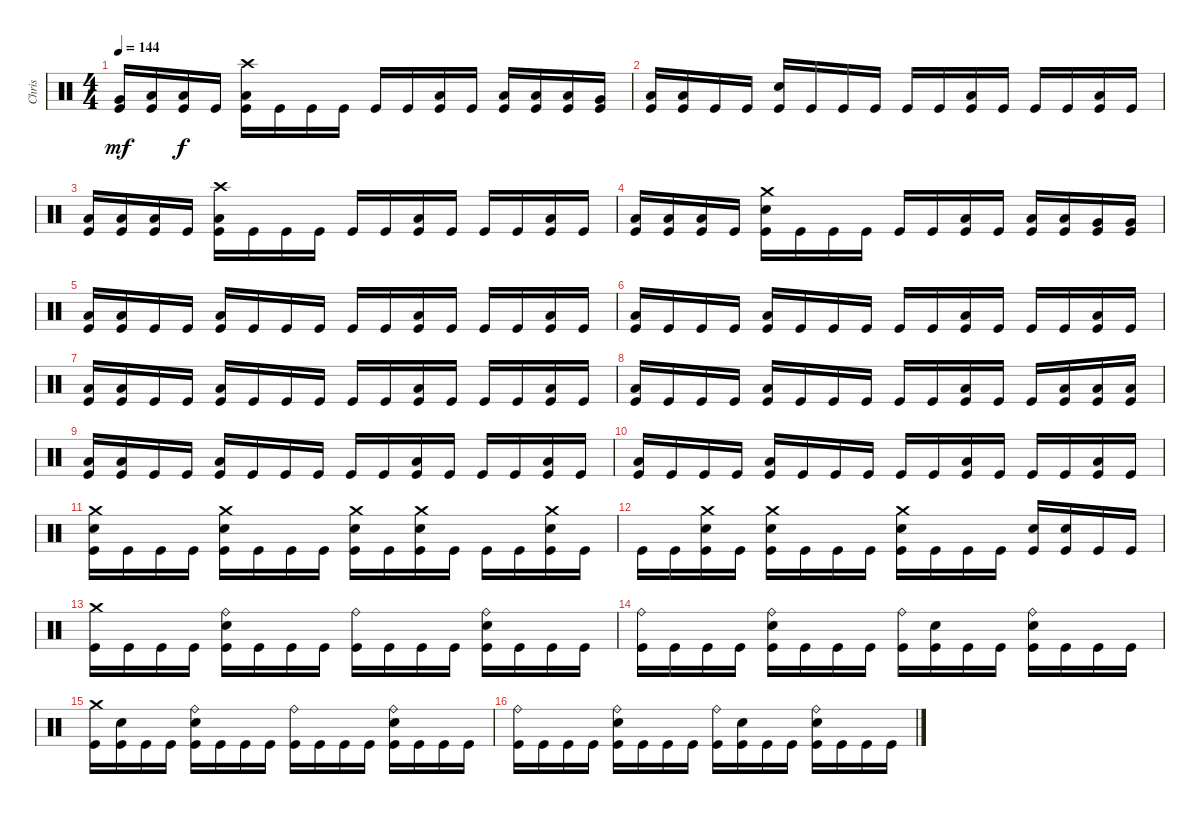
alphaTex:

\track ("Chris" "Chris") {instrument percussion}
\staff {score}
\articulation defaults
\ts (4 4)
\tempo 144
\clef neutral
\ks c
("Very Low Tom (hit)" "Kick (hit)").16{dy mf} ("Low Floor Tom (hit)" "Kick (hit)").16 ("Low Floor Tom (hit)" "Kick (hit)").16{dy f} "Kick (hit)".16 ("Crash high (hit)" "Low Floor Tom (hit)" "Kick (hit)").16 "Kick (hit)".16 "Kick (hit)".16 "Kick (hit)".16 "Kick (hit)".16 "Kick (hit)".16 ("Low Floor Tom (hit)" "Kick (hit)").16 "Kick (hit)".16 ("Low Floor Tom (hit)" "Kick (hit)").16 ("Low Floor Tom (hit)" "Kick (hit)").16 ("Low Floor Tom (hit)" "Kick (hit)").16 ("Very Low Tom (hit)" "Kick (hit)").16 |
("Low Floor Tom (hit)" "Kick (hit)").16 ("Low Floor Tom (hit)" "Kick (hit)").16 "Kick (hit)".16 "Kick (hit)".16 ("Electric Snare (hit)" "Kick (hit)").16 "Kick (hit)".16 "Kick (hit)".16 "Kick (hit)".16 "Kick (hit)".16 "Kick (hit)".16 ("Low Floor Tom (hit)" "Kick (hit)").16 "Kick (hit)".16 "Kick (hit)".16 "Kick (hit)".16 ("Low Floor Tom (hit)" "Kick (hit)").16 "Kick (hit)".16 |
("Low Floor Tom (hit)" "Kick (hit)").16 ("Low Floor Tom (hit)" "Kick (hit)").16 ("Low Floor Tom (hit)" "Kick (hit)").16 "Kick (hit)".16 ("Crash high (hit)" "Low Floor Tom (hit)" "Kick (hit)").16 "Kick (hit)".16 "Kick (hit)".16 "Kick (hit)".16 "Kick (hit)".16 "Kick (hit)".16 ("Low Floor Tom (hit)" "Kick (hit)").16 "Kick (hit)".16 "Kick (hit)".16 "Kick (hit)".16 ("Low Floor Tom (hit)" "Kick (hit)").16 "Kick (hit)".16 |
("Low Floor Tom (hit)" "Kick (hit)").16 ("Low Floor Tom (hit)" "Kick (hit)").16 ("Low Floor Tom (hit)" "Kick (hit)").16 "Kick (hit)".16 ("Crash medium (hit)" "Electric Snare (hit)" "Kick (hit)").16 "Kick (hit)".16 "Kick (hit)".16 "Kick (hit)".16 "Kick (hit)".16 "Kick (hit)".16 ("Low Floor Tom (hit)" "Kick (hit)").16 "Kick (hit)".16 ("Low Tom (hit)" "Kick (hit)").16 ("Low Tom (hit)" "Kick (hit)").16 ("Very Low Tom (hit)" "Kick (hit)").16 ("Very Low Tom (hit)" "Kick (hit)").16 |
("Low Floor Tom (hit)" "Kick (hit)").16 ("Low Floor Tom (hit)" "Kick (hit)").16 "Kick (hit)".16 "Kick (hit)".16 ("Low Floor Tom (hit)" "Kick (hit)").16 "Kick (hit)".16 "Kick (hit)".16 "Kick (hit)".16 "Kick (hit)".16 "Kick (hit)".16 ("Low Floor Tom (hit)" "Kick (hit)").16 "Kick (hit)".16 "Kick (hit)".16 "Kick (hit)".16 ("Low Floor Tom (hit)" "Kick (hit)").16 "Kick (hit)".16 |
("Low Floor Tom (hit)" "Kick (hit)").16 "Kick (hit)".16 "Kick (hit)".16 "Kick (hit)".16 ("Low Floor Tom (hit)" "Kick (hit)").16 "Kick (hit)".16 "Kick (hit)".16 "Kick (hit)".16 "Kick (hit)".16 "Kick (hit)".16 ("Low Floor Tom (hit)" "Kick (hit)").16 "Kick (hit)".16 "Kick (hit)".16 "Kick (hit)".16 ("Low Floor Tom (hit)" "Kick (hit)").16 "Kick (hit)".16 |
("Low Floor Tom (hit)" "Kick (hit)").16 ("Low Floor Tom (hit)" "Kick (hit)").16 "Kick (hit)".16 "Kick (hit)".16 ("Low Floor Tom (hit)" "Kick (hit)").16 "Kick (hit)".16 "Kick (hit)".16 "Kick (hit)".16 "Kick (hit)".16 "Kick (hit)".16 ("Low Floor Tom (hit)" "Kick (hit)").16 "Kick (hit)".16 "Kick (hit)".16 "Kick (hit)".16 ("Low Floor Tom (hit)" "Kick (hit)").16 "Kick (hit)".16 |
("Low Floor Tom (hit)" "Kick (hit)").16 "Kick (hit)".16 "Kick (hit)".16 "Kick (hit)".16 ("Low Floor Tom (hit)" "Kick (hit)").16 "Kick (hit)".16 "Kick (hit)".16 "Kick (hit)".16 "Kick (hit)".16 "Kick (hit)".16 ("Low Floor Tom (hit)" "Kick (hit)").16 "Kick (hit)".16 "Kick (hit)".16 ("Low Floor Tom (hit)" "Kick (hit)").16 ("Low Floor Tom (hit)" "Kick (hit)").16 ("Low Floor Tom (hit)" "Kick (hit)").16 |
("Low Floor Tom (hit)" "Kick (hit)").16 ("Low Floor Tom (hit)" "Kick (hit)").16 "Kick (hit)".16 "Kick (hit)".16 ("Low Floor Tom (hit)" "Kick (hit)").16 "Kick (hit)".16 "Kick (hit)".16 "Kick (hit)".16 "Kick (hit)".16 "Kick (hit)".16 ("Low Floor Tom (hit)" "Kick (hit)").16 "Kick (hit)".16 "Kick (hit)".16 "Kick (hit)".16 ("Low Floor Tom (hit)" "Kick (hit)").16 "Kick (hit)".16 |
("Low Floor Tom (hit)" "Kick (hit)").16 "Kick (hit)".16 "Kick (hit)".16 "Kick (hit)".16 ("Low Floor Tom (hit)" "Kick (hit)").16 "Kick (hit)".16 "Kick (hit)".16 "Kick (hit)".16 "Kick (hit)".16 "Kick (hit)".16 ("Low Floor Tom (hit)" "Kick (hit)").16 "Kick (hit)".16 "Kick (hit)".16 "Kick (hit)".16 ("Low Floor Tom (hit)" "Kick (hit)").16 "Kick (hit)".16 |
("Crash medium (hit)" "Electric Snare (hit)" "Kick (hit)").16 "Kick (hit)".16 "Kick (hit)".16 "Kick (hit)".16 ("Crash medium (hit)" "Electric Snare (hit)" "Kick (hit)").16 "Kick (hit)".16 "Kick (hit)".16 "Kick (hit)".16 ("Crash medium (hit)" "Electric Snare (hit)" "Kick (hit)").16 "Kick (hit)".16 ("Crash medium (hit)" "Electric Snare (hit)" "Kick (hit)").16 "Kick (hit)".16 "Kick (hit)".16 "Kick (hit)".16 ("Crash medium (hit)" "Electric Snare (hit)" "Kick (hit)").16 "Kick (hit)".16 |
"Kick (hit)".16 "Kick (hit)".16 ("Crash medium (hit)" "Electric Snare (hit)" "Kick (hit)").16 "Kick (hit)".16 ("Crash medium (hit)" "Electric Snare (hit)" "Kick (hit)").16 "Kick (hit)".16 "Kick (hit)".16 "Kick (hit)".16 ("Crash medium (hit)" "Electric Snare (hit)" "Kick (hit)").16 "Kick (hit)".16 "Kick (hit)".16 "Kick (hit)".16 ("Electric Snare (hit)" "Kick (hit)").16 ("Electric Snare (hit)" "Kick (hit)").16 "Kick (hit)".16 "Kick (hit)".16 |
("Crash medium (hit)" "Kick (hit)").16 "Kick (hit)".16 "Kick (hit)".16 "Kick (hit)".16 ("Ride (bell)" "Electric Snare (hit)" "Kick (hit)").16 "Kick (hit)".16 "Kick (hit)".16 "Kick (hit)".16 ("Ride (bell)" "Kick (hit)").16 "Kick (hit)".16 "Kick (hit)".16 "Kick (hit)".16 ("Ride (bell)" "Electric Snare (hit)" "Kick (hit)").16 "Kick (hit)".16 "Kick (hit)".16 "Kick (hit)".16 |
("Ride (bell)" "Kick (hit)").16 "Kick (hit)".16 "Kick (hit)".16 "Kick (hit)".16 ("Ride (bell)" "Electric Snare (hit)" "Kick (hit)").16 "Kick (hit)".16 "Kick (hit)".16 "Kick (hit)".16 ("Ride (bell)" "Kick (hit)").16 ("Electric Snare (hit)" "Kick (hit)").16 "Kick (hit)".16 "Kick (hit)".16 ("Ride (bell)" "Electric Snare (hit)" "Kick (hit)").16 "Kick (hit)".16 "Kick (hit)".16 "Kick (hit)".16 |
("Crash medium (hit)" "Kick (hit)").16 ("Electric Snare (hit)" "Kick (hit)").16 "Kick (hit)".16 "Kick (hit)".16 ("Ride (bell)" "Electric Snare (hit)" "Kick (hit)").16 "Kick (hit)".16 "Kick (hit)".16 "Kick (hit)".16 ("Ride (bell)" "Kick (hit)").16 "Kick (hit)".16 "Kick (hit)".16 "Kick (hit)".16 ("Ride (bell)" "Electric Snare (hit)" "Kick (hit)").16 "Kick (hit)".16 "Kick (hit)".16 "Kick (hit)".16 |
("Ride (bell)" "Kick (hit)").16 "Kick (hit)".16 "Kick (hit)".16 "Kick (hit)".16 ("Ride (bell)" "Electric Snare (hit)" "Kick (hit)").16 "Kick (hit)".16 "Kick (hit)".16 "Kick (hit)".16 ("Ride (bell)" "Kick (hit)").16 ("Electric Snare (hit)" "Kick (hit)").16 "Kick (hit)".16 "Kick (hit)".16 ("Ride (bell)" "Electric Snare (hit)" "Kick (hit)").16 "Kick (hit)".16 "Kick (hit)".16 "Kick (hit)".16
